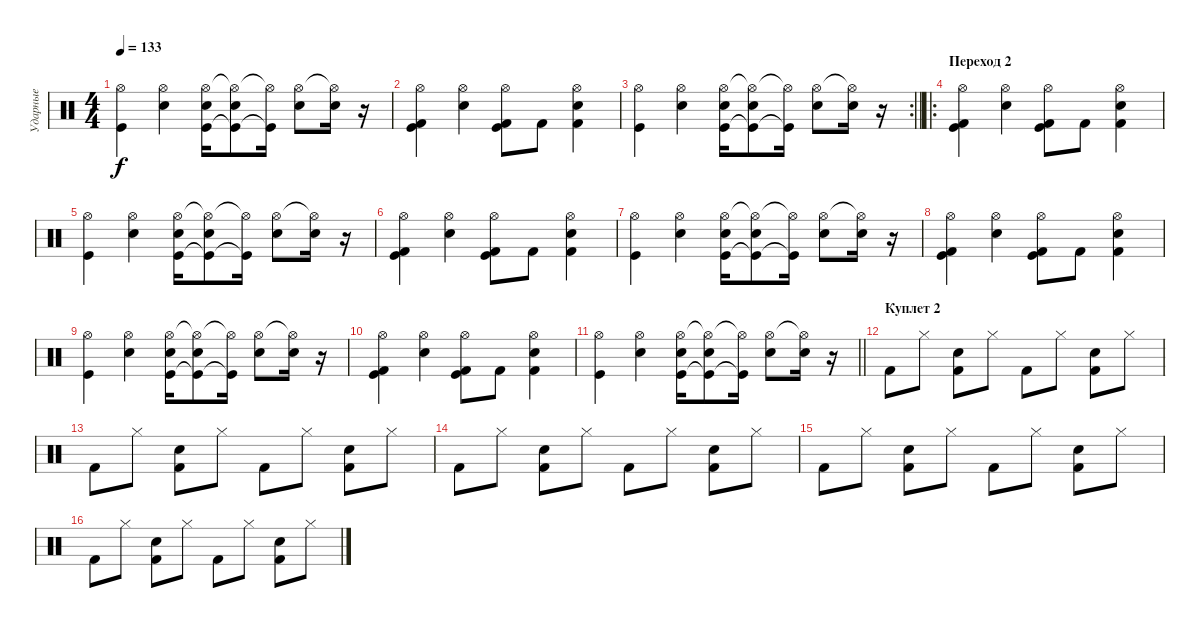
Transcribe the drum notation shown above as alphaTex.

\track ("Ударные" "Ударные") {instrument percussion}
\staff {score}
\articulation defaults
\ts (4 4)
\tempo 133
\clef neutral
\ks c
("Hi-Hat (open)" "Kick (hit)").4{dy f} ("Hi-Hat (open)" "Snare (hit) 2").4 ("Hi-Hat (open)" "Kick (hit)" "Snare (hit) 2").16 ("Hi-Hat (open)"{t} "Kick (hit)"{t} "Snare (hit) 2").8 ("Hi-Hat (open)"{t} "Kick (hit)"{t}).16 ("Hi-Hat (open)" "Snare (hit) 2").8 ("Hi-Hat (open)"{t} "Snare (hit) 2").16 r.16 |
("Hi-Hat (open)" "Kick (hit) 2" "Kick (hit)").4 ("Hi-Hat (open)" "Snare (hit) 2").4 ("Hi-Hat (open)" "Kick (hit) 2" "Kick (hit)").8 "Kick (hit) 2".8 ("Hi-Hat (open)" "Kick (hit) 2" "Snare (hit) 2").4 |
\rc 2
\barLineRight lightlight
("Hi-Hat (open)" "Kick (hit)").4 ("Hi-Hat (open)" "Snare (hit) 2").4 ("Hi-Hat (open)" "Kick (hit)" "Snare (hit) 2").16 ("Hi-Hat (open)"{t} "Kick (hit)"{t} "Snare (hit) 2").8 ("Hi-Hat (open)"{t} "Kick (hit)"{t}).16 ("Hi-Hat (open)" "Snare (hit) 2").8 ("Hi-Hat (open)"{t} "Snare (hit) 2").16 r.16 |
\ro
\section ("" "Переход 2")
("Hi-Hat (open)" "Kick (hit) 2" "Kick (hit)").4 ("Hi-Hat (open)" "Snare (hit) 2").4 ("Hi-Hat (open)" "Kick (hit) 2" "Kick (hit)").8 "Kick (hit) 2".8 ("Hi-Hat (open)" "Kick (hit) 2" "Snare (hit) 2").4 |
("Hi-Hat (open)" "Kick (hit)").4 ("Hi-Hat (open)" "Snare (hit) 2").4 ("Hi-Hat (open)" "Kick (hit)" "Snare (hit) 2").16 ("Hi-Hat (open)"{t} "Kick (hit)"{t} "Snare (hit) 2").8 ("Hi-Hat (open)"{t} "Kick (hit)"{t}).16 ("Hi-Hat (open)" "Snare (hit) 2").8 ("Hi-Hat (open)"{t} "Snare (hit) 2").16 r.16 |
("Hi-Hat (open)" "Kick (hit) 2" "Kick (hit)").4 ("Hi-Hat (open)" "Snare (hit) 2").4 ("Hi-Hat (open)" "Kick (hit) 2" "Kick (hit)").8 "Kick (hit) 2".8 ("Hi-Hat (open)" "Kick (hit) 2" "Snare (hit) 2").4 |
("Hi-Hat (open)" "Kick (hit)").4 ("Hi-Hat (open)" "Snare (hit) 2").4 ("Hi-Hat (open)" "Kick (hit)" "Snare (hit) 2").16 ("Hi-Hat (open)"{t} "Kick (hit)"{t} "Snare (hit) 2").8 ("Hi-Hat (open)"{t} "Kick (hit)"{t}).16 ("Hi-Hat (open)" "Snare (hit) 2").8 ("Hi-Hat (open)"{t} "Snare (hit) 2").16 r.16 |
("Hi-Hat (open)" "Kick (hit) 2" "Kick (hit)").4 ("Hi-Hat (open)" "Snare (hit) 2").4 ("Hi-Hat (open)" "Kick (hit) 2" "Kick (hit)").8 "Kick (hit) 2".8 ("Hi-Hat (open)" "Kick (hit) 2" "Snare (hit) 2").4 |
("Hi-Hat (open)" "Kick (hit)").4 ("Hi-Hat (open)" "Snare (hit) 2").4 ("Hi-Hat (open)" "Kick (hit)" "Snare (hit) 2").16 ("Hi-Hat (open)"{t} "Kick (hit)"{t} "Snare (hit) 2").8 ("Hi-Hat (open)"{t} "Kick (hit)"{t}).16 ("Hi-Hat (open)" "Snare (hit) 2").8 ("Hi-Hat (open)"{t} "Snare (hit) 2").16 r.16 |
("Hi-Hat (open)" "Kick (hit) 2" "Kick (hit)").4 ("Hi-Hat (open)" "Snare (hit) 2").4 ("Hi-Hat (open)" "Kick (hit) 2" "Kick (hit)").8 "Kick (hit) 2".8 ("Hi-Hat (open)" "Kick (hit) 2" "Snare (hit) 2").4 |
\barLineRight lightlight
("Hi-Hat (open)" "Kick (hit)").4 ("Hi-Hat (open)" "Snare (hit) 2").4 ("Hi-Hat (open)" "Kick (hit)" "Snare (hit) 2").16 ("Hi-Hat (open)"{t} "Kick (hit)"{t} "Snare (hit) 2").8 ("Hi-Hat (open)"{t} "Kick (hit)"{t}).16 ("Hi-Hat (open)" "Snare (hit) 2").8 ("Hi-Hat (open)"{t} "Snare (hit) 2").16 r.16 |
\section ("" "Куплет 2")
"Kick (hit) 2".8 "Hi-Hat (closed)".8 ("Kick (hit) 2" "Snare (hit) 2").8 "Hi-Hat (closed)".8 "Kick (hit) 2".8 "Hi-Hat (closed)".8 ("Kick (hit) 2" "Snare (hit) 2").8 "Hi-Hat (closed)".8 |
"Kick (hit) 2".8 "Hi-Hat (closed)".8 ("Kick (hit) 2" "Snare (hit) 2").8 "Hi-Hat (closed)".8 "Kick (hit) 2".8 "Hi-Hat (closed)".8 ("Kick (hit) 2" "Snare (hit) 2").8 "Hi-Hat (closed)".8 |
"Kick (hit) 2".8 "Hi-Hat (closed)".8 ("Kick (hit) 2" "Snare (hit) 2").8 "Hi-Hat (closed)".8 "Kick (hit) 2".8 "Hi-Hat (closed)".8 ("Kick (hit) 2" "Snare (hit) 2").8 "Hi-Hat (closed)".8 |
"Kick (hit) 2".8 "Hi-Hat (closed)".8 ("Kick (hit) 2" "Snare (hit) 2").8 "Hi-Hat (closed)".8 "Kick (hit) 2".8 "Hi-Hat (closed)".8 ("Kick (hit) 2" "Snare (hit) 2").8 "Hi-Hat (closed)".8 |
"Kick (hit) 2".8 "Hi-Hat (closed)".8 ("Kick (hit) 2" "Snare (hit) 2").8 "Hi-Hat (closed)".8 "Kick (hit) 2".8 "Hi-Hat (closed)".8 ("Kick (hit) 2" "Snare (hit) 2").8 "Hi-Hat (closed)".8
